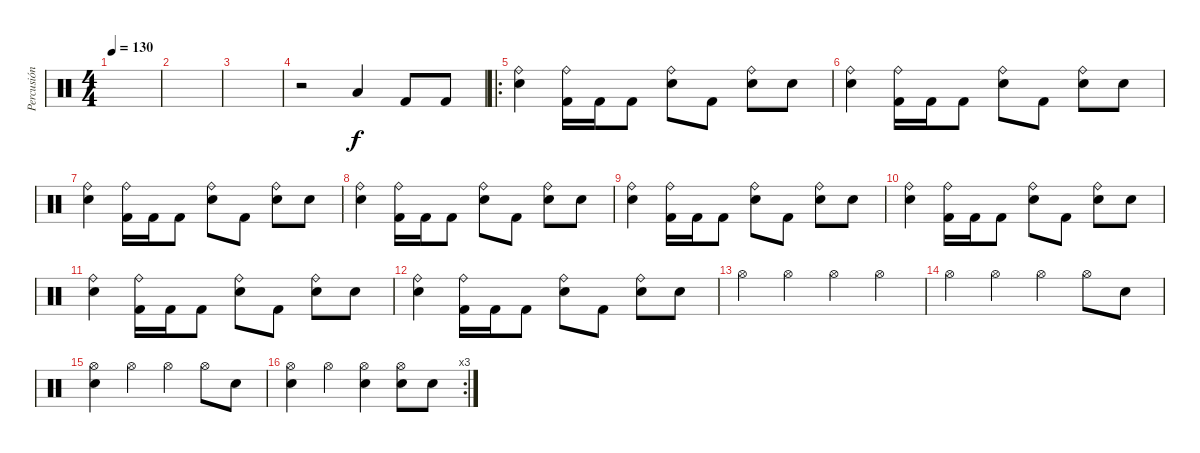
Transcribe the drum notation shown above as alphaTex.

\track ("Percusión" "Percusión") {instrument percussion}
\staff {score}
\articulation defaults
\ts (4 4)
\tempo 130
\clef neutral
\ks c
|
|
|
r.2 "Low Tom (hit)".4 "Kick (hit) 2".8 "Kick (hit) 2".8 |
\ro
("Ride (bell)" "Electric Snare (hit)").4 ("Ride (bell)" "Kick (hit) 2").16 "Kick (hit) 2".16 "Kick (hit) 2".8 ("Ride (bell)" "Electric Snare (hit)").8 "Kick (hit) 2".8 ("Ride (bell)" "Electric Snare (hit)").8 "Electric Snare (hit)".8 |
("Ride (bell)" "Electric Snare (hit)").4 ("Ride (bell)" "Kick (hit) 2").16 "Kick (hit) 2".16 "Kick (hit) 2".8 ("Ride (bell)" "Electric Snare (hit)").8 "Kick (hit) 2".8 ("Ride (bell)" "Electric Snare (hit)").8 "Electric Snare (hit)".8 |
("Ride (bell)" "Electric Snare (hit)").4 ("Ride (bell)" "Kick (hit) 2").16 "Kick (hit) 2".16 "Kick (hit) 2".8 ("Ride (bell)" "Electric Snare (hit)").8 "Kick (hit) 2".8 ("Ride (bell)" "Electric Snare (hit)").8 "Electric Snare (hit)".8 |
("Ride (bell)" "Electric Snare (hit)").4 ("Ride (bell)" "Kick (hit) 2").16 "Kick (hit) 2".16 "Kick (hit) 2".8 ("Ride (bell)" "Electric Snare (hit)").8 "Kick (hit) 2".8 ("Ride (bell)" "Electric Snare (hit)").8 "Electric Snare (hit)".8 |
("Ride (bell)" "Electric Snare (hit)").4 ("Ride (bell)" "Kick (hit) 2").16 "Kick (hit) 2".16 "Kick (hit) 2".8 ("Ride (bell)" "Electric Snare (hit)").8 "Kick (hit) 2".8 ("Ride (bell)" "Electric Snare (hit)").8 "Electric Snare (hit)".8 |
("Ride (bell)" "Electric Snare (hit)").4 ("Ride (bell)" "Kick (hit) 2").16 "Kick (hit) 2".16 "Kick (hit) 2".8 ("Ride (bell)" "Electric Snare (hit)").8 "Kick (hit) 2".8 ("Ride (bell)" "Electric Snare (hit)").8 "Electric Snare (hit)".8 |
("Ride (bell)" "Electric Snare (hit)").4 ("Ride (bell)" "Kick (hit) 2").16 "Kick (hit) 2".16 "Kick (hit) 2".8 ("Ride (bell)" "Electric Snare (hit)").8 "Kick (hit) 2".8 ("Ride (bell)" "Electric Snare (hit)").8 "Electric Snare (hit)".8 |
("Ride (bell)" "Electric Snare (hit)").4 ("Ride (bell)" "Kick (hit) 2").16 "Kick (hit) 2".16 "Kick (hit) 2".8 ("Ride (bell)" "Electric Snare (hit)").8 "Kick (hit) 2".8 ("Ride (bell)" "Electric Snare (hit)").8 "Electric Snare (hit)".8 |
"Hi-Hat (open)".4 "Hi-Hat (open)".4 "Hi-Hat (open)".4 "Hi-Hat (open)".4 |
"Hi-Hat (open)".4 "Hi-Hat (open)".4 "Hi-Hat (open)".4 "Hi-Hat (open)".8 "Electric Snare (hit)".8 |
("Hi-Hat (open)" "Electric Snare (hit)").4 "Hi-Hat (open)".4 "Hi-Hat (open)".4 "Hi-Hat (open)".8 "Electric Snare (hit)".8 |
\rc 3
("Hi-Hat (open)" "Electric Snare (hit)").4 "Hi-Hat (open)".4 ("Hi-Hat (open)" "Electric Snare (hit)").4 ("Hi-Hat (open)" "Electric Snare (hit)").8 "Electric Snare (hit)".8
